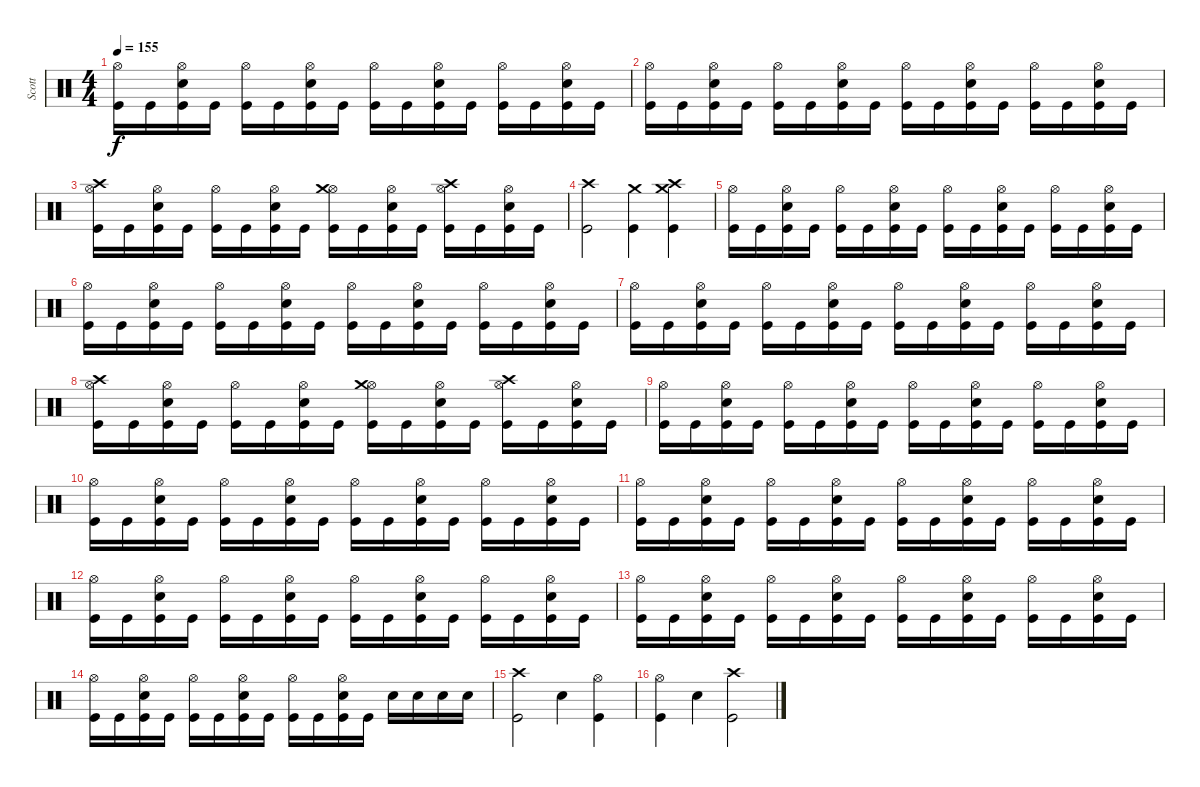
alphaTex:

\track ("Scott" "Scott") {instrument percussion}
\staff {score}
\articulation defaults
\ts (4 4)
\tempo 155
\clef neutral
\ks c
("Hi-Hat (open)" "Kick (hit)").16{dy f} "Kick (hit)".16 ("Hi-Hat (open)" "Snare (hit) 2" "Kick (hit)").16 "Kick (hit)".16 ("Hi-Hat (open)" "Kick (hit)").16 "Kick (hit)".16 ("Hi-Hat (open)" "Snare (hit) 2" "Kick (hit)").16 "Kick (hit)".16 ("Hi-Hat (open)" "Kick (hit)").16 "Kick (hit)".16 ("Hi-Hat (open)" "Snare (hit) 2" "Kick (hit)").16 "Kick (hit)".16 ("Hi-Hat (open)" "Kick (hit)").16 "Kick (hit)".16 ("Hi-Hat (open)" "Snare (hit) 2" "Kick (hit)").16 "Kick (hit)".16 |
("Hi-Hat (open)" "Kick (hit)").16 "Kick (hit)".16 ("Hi-Hat (open)" "Snare (hit) 2" "Kick (hit)").16 "Kick (hit)".16 ("Hi-Hat (open)" "Kick (hit)").16 "Kick (hit)".16 ("Hi-Hat (open)" "Snare (hit) 2" "Kick (hit)").16 "Kick (hit)".16 ("Hi-Hat (open)" "Kick (hit)").16 "Kick (hit)".16 ("Hi-Hat (open)" "Snare (hit) 2" "Kick (hit)").16 "Kick (hit)".16 ("Hi-Hat (open)" "Kick (hit)").16 "Kick (hit)".16 ("Hi-Hat (open)" "Snare (hit) 2" "Kick (hit)").16 "Kick (hit)".16 |
("Hi-Hat (open)" "Crash high (hit)" "Kick (hit)").16 "Kick (hit)".16 ("Hi-Hat (open)" "Snare (hit) 2" "Kick (hit)").16 "Kick (hit)".16 ("Hi-Hat (open)" "Kick (hit)").16 "Kick (hit)".16 ("Hi-Hat (open)" "Snare (hit) 2" "Kick (hit)").16 "Kick (hit)".16 ("Hi-Hat (open)" "Crash medium (hit)" "Kick (hit)").16 "Kick (hit)".16 ("Hi-Hat (open)" "Snare (hit) 2" "Kick (hit)").16 "Kick (hit)".16 ("Hi-Hat (open)" "Crash high (hit)" "Kick (hit)").16 "Kick (hit)".16 ("Hi-Hat (open)" "Snare (hit) 2" "Kick (hit)").16 "Kick (hit)".16 |
("Crash high (hit)" "Kick (hit)").2 ("Crash medium (hit)" "Kick (hit)").4 ("Crash medium (hit)" "Crash high (hit)" "Kick (hit)").4 |
("Hi-Hat (open)" "Kick (hit)").16 "Kick (hit)".16 ("Hi-Hat (open)" "Snare (hit) 2" "Kick (hit)").16 "Kick (hit)".16 ("Hi-Hat (open)" "Kick (hit)").16 "Kick (hit)".16 ("Hi-Hat (open)" "Snare (hit) 2" "Kick (hit)").16 "Kick (hit)".16 ("Hi-Hat (open)" "Kick (hit)").16 "Kick (hit)".16 ("Hi-Hat (open)" "Snare (hit) 2" "Kick (hit)").16 "Kick (hit)".16 ("Hi-Hat (open)" "Kick (hit)").16 "Kick (hit)".16 ("Hi-Hat (open)" "Snare (hit) 2" "Kick (hit)").16 "Kick (hit)".16 |
("Hi-Hat (open)" "Kick (hit)").16 "Kick (hit)".16 ("Hi-Hat (open)" "Snare (hit) 2" "Kick (hit)").16 "Kick (hit)".16 ("Hi-Hat (open)" "Kick (hit)").16 "Kick (hit)".16 ("Hi-Hat (open)" "Snare (hit) 2" "Kick (hit)").16 "Kick (hit)".16 ("Hi-Hat (open)" "Kick (hit)").16 "Kick (hit)".16 ("Hi-Hat (open)" "Snare (hit) 2" "Kick (hit)").16 "Kick (hit)".16 ("Hi-Hat (open)" "Kick (hit)").16 "Kick (hit)".16 ("Hi-Hat (open)" "Snare (hit) 2" "Kick (hit)").16 "Kick (hit)".16 |
("Hi-Hat (open)" "Kick (hit)").16 "Kick (hit)".16 ("Hi-Hat (open)" "Snare (hit) 2" "Kick (hit)").16 "Kick (hit)".16 ("Hi-Hat (open)" "Kick (hit)").16 "Kick (hit)".16 ("Hi-Hat (open)" "Snare (hit) 2" "Kick (hit)").16 "Kick (hit)".16 ("Hi-Hat (open)" "Kick (hit)").16 "Kick (hit)".16 ("Hi-Hat (open)" "Snare (hit) 2" "Kick (hit)").16 "Kick (hit)".16 ("Hi-Hat (open)" "Kick (hit)").16 "Kick (hit)".16 ("Hi-Hat (open)" "Snare (hit) 2" "Kick (hit)").16 "Kick (hit)".16 |
("Hi-Hat (open)" "Crash high (hit)" "Kick (hit)").16 "Kick (hit)".16 ("Hi-Hat (open)" "Snare (hit) 2" "Kick (hit)").16 "Kick (hit)".16 ("Hi-Hat (open)" "Kick (hit)").16 "Kick (hit)".16 ("Hi-Hat (open)" "Snare (hit) 2" "Kick (hit)").16 "Kick (hit)".16 ("Hi-Hat (open)" "Crash medium (hit)" "Kick (hit)").16 "Kick (hit)".16 ("Hi-Hat (open)" "Snare (hit) 2" "Kick (hit)").16 "Kick (hit)".16 ("Hi-Hat (open)" "Crash high (hit)" "Kick (hit)").16 "Kick (hit)".16 ("Hi-Hat (open)" "Snare (hit) 2" "Kick (hit)").16 "Kick (hit)".16 |
("Hi-Hat (open)" "Kick (hit)").16 "Kick (hit)".16 ("Hi-Hat (open)" "Snare (hit) 2" "Kick (hit)").16 "Kick (hit)".16 ("Hi-Hat (open)" "Kick (hit)").16 "Kick (hit)".16 ("Hi-Hat (open)" "Snare (hit) 2" "Kick (hit)").16 "Kick (hit)".16 ("Hi-Hat (open)" "Kick (hit)").16 "Kick (hit)".16 ("Hi-Hat (open)" "Snare (hit) 2" "Kick (hit)").16 "Kick (hit)".16 ("Hi-Hat (open)" "Kick (hit)").16 "Kick (hit)".16 ("Hi-Hat (open)" "Snare (hit) 2" "Kick (hit)").16 "Kick (hit)".16 |
("Hi-Hat (open)" "Kick (hit)").16 "Kick (hit)".16 ("Hi-Hat (open)" "Snare (hit) 2" "Kick (hit)").16 "Kick (hit)".16 ("Hi-Hat (open)" "Kick (hit)").16 "Kick (hit)".16 ("Hi-Hat (open)" "Snare (hit) 2" "Kick (hit)").16 "Kick (hit)".16 ("Hi-Hat (open)" "Kick (hit)").16 "Kick (hit)".16 ("Hi-Hat (open)" "Snare (hit) 2" "Kick (hit)").16 "Kick (hit)".16 ("Hi-Hat (open)" "Kick (hit)").16 "Kick (hit)".16 ("Hi-Hat (open)" "Snare (hit) 2" "Kick (hit)").16 "Kick (hit)".16 |
("Hi-Hat (open)" "Kick (hit)").16 "Kick (hit)".16 ("Hi-Hat (open)" "Snare (hit) 2" "Kick (hit)").16 "Kick (hit)".16 ("Hi-Hat (open)" "Kick (hit)").16 "Kick (hit)".16 ("Hi-Hat (open)" "Snare (hit) 2" "Kick (hit)").16 "Kick (hit)".16 ("Hi-Hat (open)" "Kick (hit)").16 "Kick (hit)".16 ("Hi-Hat (open)" "Snare (hit) 2" "Kick (hit)").16 "Kick (hit)".16 ("Hi-Hat (open)" "Kick (hit)").16 "Kick (hit)".16 ("Hi-Hat (open)" "Snare (hit) 2" "Kick (hit)").16 "Kick (hit)".16 |
("Hi-Hat (open)" "Kick (hit)").16 "Kick (hit)".16 ("Hi-Hat (open)" "Snare (hit) 2" "Kick (hit)").16 "Kick (hit)".16 ("Hi-Hat (open)" "Kick (hit)").16 "Kick (hit)".16 ("Hi-Hat (open)" "Snare (hit) 2" "Kick (hit)").16 "Kick (hit)".16 ("Hi-Hat (open)" "Kick (hit)").16 "Kick (hit)".16 ("Hi-Hat (open)" "Snare (hit) 2" "Kick (hit)").16 "Kick (hit)".16 ("Hi-Hat (open)" "Kick (hit)").16 "Kick (hit)".16 ("Hi-Hat (open)" "Snare (hit) 2" "Kick (hit)").16 "Kick (hit)".16 |
("Hi-Hat (open)" "Kick (hit)").16 "Kick (hit)".16 ("Hi-Hat (open)" "Snare (hit) 2" "Kick (hit)").16 "Kick (hit)".16 ("Hi-Hat (open)" "Kick (hit)").16 "Kick (hit)".16 ("Hi-Hat (open)" "Snare (hit) 2" "Kick (hit)").16 "Kick (hit)".16 ("Hi-Hat (open)" "Kick (hit)").16 "Kick (hit)".16 ("Hi-Hat (open)" "Snare (hit) 2" "Kick (hit)").16 "Kick (hit)".16 ("Hi-Hat (open)" "Kick (hit)").16 "Kick (hit)".16 ("Hi-Hat (open)" "Snare (hit) 2" "Kick (hit)").16 "Kick (hit)".16 |
("Hi-Hat (open)" "Kick (hit)").16 "Kick (hit)".16 ("Hi-Hat (open)" "Snare (hit) 2" "Kick (hit)").16 "Kick (hit)".16 ("Hi-Hat (open)" "Kick (hit)").16 "Kick (hit)".16 ("Hi-Hat (open)" "Snare (hit) 2" "Kick (hit)").16 "Kick (hit)".16 ("Hi-Hat (open)" "Kick (hit)").16 "Kick (hit)".16 ("Hi-Hat (open)" "Snare (hit) 2" "Kick (hit)").16 "Kick (hit)".16 "Snare (hit) 2".16 "Snare (hit) 2".16 "Snare (hit) 2".16 "Snare (hit) 2".16 |
("Crash high (hit)" "Kick (hit)").2 "Snare (hit) 2".4 ("Hi-Hat (open)" "Kick (hit)").4 |
("Hi-Hat (open)" "Kick (hit)").4 "Snare (hit) 2".4 ("Crash high (hit)" "Kick (hit)").2
